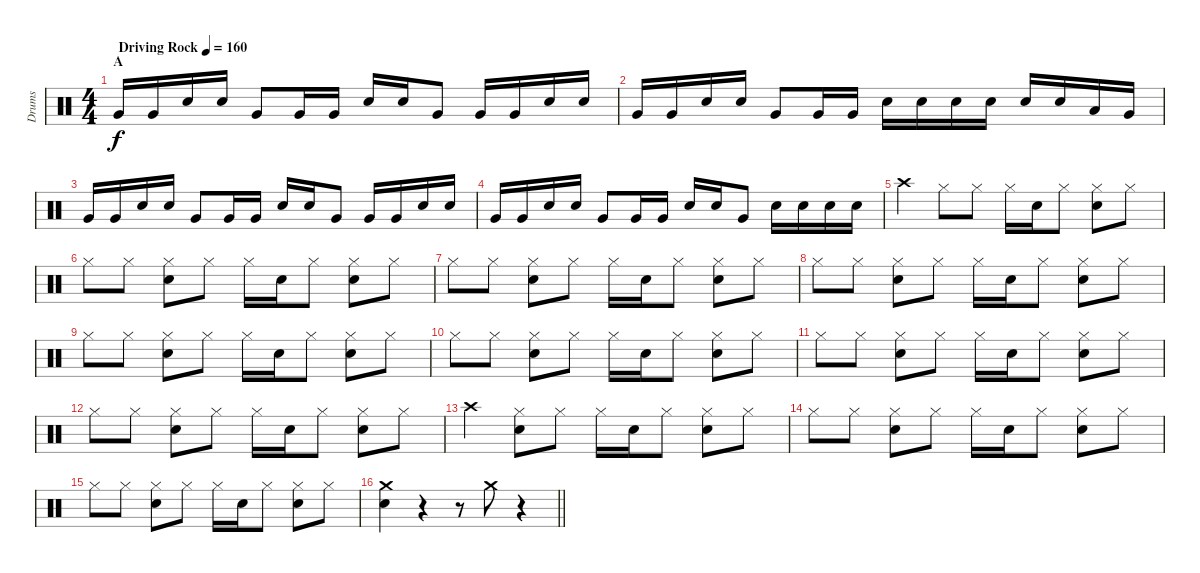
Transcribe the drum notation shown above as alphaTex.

\track ("Drums" "Drums") {instrument percussion}
\staff {score}
\articulation defaults
\ts (4 4)
\section ("" "A")
\tempo (160 "Driving Rock")
\clef neutral
\ks c "Very Low Tom (hit)".16{dy f} "Very Low Tom (hit)".16 "Snare (hit) 2".16 "Snare (hit) 2".16 "Very Low Tom (hit)".8 "Very Low Tom (hit)".16 "Very Low Tom (hit)".16 "Snare (hit) 2".16 "Snare (hit) 2".16 "Very Low Tom (hit)".8 "Very Low Tom (hit)".16 "Very Low Tom (hit)".16 "Snare (hit) 2".16 "Snare (hit) 2".16
|
"Very Low Tom (hit)".16 "Very Low Tom (hit)".16 "Snare (hit) 2".16 "Snare (hit) 2".16 "Very Low Tom (hit)".8 "Very Low Tom (hit)".16 "Very Low Tom (hit)".16 "Snare (hit) 2".16 "Snare (hit) 2".16 "Snare (hit) 2".16 "Snare (hit) 2".16 "Snare (hit) 2".16 "Snare (hit) 2".16 "Low Tom (hit)".16 "Very Low Tom (hit)".16 |
"Very Low Tom (hit)".16 "Very Low Tom (hit)".16 "Snare (hit) 2".16 "Snare (hit) 2".16 "Very Low Tom (hit)".8 "Very Low Tom (hit)".16 "Very Low Tom (hit)".16 "Snare (hit) 2".16 "Snare (hit) 2".16 "Very Low Tom (hit)".8 "Very Low Tom (hit)".16 "Very Low Tom (hit)".16 "Snare (hit) 2".16 "Snare (hit) 2".16 |
"Very Low Tom (hit)".16 "Very Low Tom (hit)".16 "Snare (hit) 2".16 "Snare (hit) 2".16 "Very Low Tom (hit)".8 "Very Low Tom (hit)".16 "Very Low Tom (hit)".16 "Snare (hit) 2".16 "Snare (hit) 2".16 "Very Low Tom (hit)".8 "Snare (hit) 2".16 "Snare (hit) 2".16 "Snare (hit) 2".16 "Snare (hit) 2".16 |
"Crash high (hit)".4 "Hi-Hat (closed)".8 "Hi-Hat (closed)".8 "Hi-Hat (closed)".16 "Snare (hit) 2".16 "Hi-Hat (closed)".8 ("Hi-Hat (closed)" "Snare (hit) 2").8 "Hi-Hat (closed)".8 |
"Hi-Hat (closed)".8 "Hi-Hat (closed)".8 ("Hi-Hat (closed)" "Snare (hit) 2").8 "Hi-Hat (closed)".8 "Hi-Hat (closed)".16 "Snare (hit) 2".16 "Hi-Hat (closed)".8 ("Snare (hit) 2" "Hi-Hat (closed)").8 "Hi-Hat (closed)".8 |
"Hi-Hat (closed)".8 "Hi-Hat (closed)".8 ("Hi-Hat (closed)" "Snare (hit) 2").8 "Hi-Hat (closed)".8 "Hi-Hat (closed)".16 "Snare (hit) 2".16 "Hi-Hat (closed)".8 ("Snare (hit) 2" "Hi-Hat (closed)").8 "Hi-Hat (closed)".8 |
"Hi-Hat (closed)".8 "Hi-Hat (closed)".8 ("Hi-Hat (closed)" "Snare (hit) 2").8 "Hi-Hat (closed)".8 "Hi-Hat (closed)".16 "Snare (hit) 2".16 "Hi-Hat (closed)".8 ("Snare (hit) 2" "Hi-Hat (closed)").8 "Hi-Hat (closed)".8 |
"Hi-Hat (closed)".8 "Hi-Hat (closed)".8 ("Hi-Hat (closed)" "Snare (hit) 2").8 "Hi-Hat (closed)".8 "Hi-Hat (closed)".16 "Snare (hit) 2".16 "Hi-Hat (closed)".8 ("Snare (hit) 2" "Hi-Hat (closed)").8 "Hi-Hat (closed)".8 |
"Hi-Hat (closed)".8 "Hi-Hat (closed)".8 ("Hi-Hat (closed)" "Snare (hit) 2").8 "Hi-Hat (closed)".8 "Hi-Hat (closed)".16 "Snare (hit) 2".16 "Hi-Hat (closed)".8 ("Snare (hit) 2" "Hi-Hat (closed)").8 "Hi-Hat (closed)".8 |
"Hi-Hat (closed)".8 "Hi-Hat (closed)".8 ("Hi-Hat (closed)" "Snare (hit) 2").8 "Hi-Hat (closed)".8 "Hi-Hat (closed)".16 "Snare (hit) 2".16 "Hi-Hat (closed)".8 ("Snare (hit) 2" "Hi-Hat (closed)").8 "Hi-Hat (closed)".8 |
"Hi-Hat (closed)".8 "Hi-Hat (closed)".8 ("Hi-Hat (closed)" "Snare (hit) 2").8 "Hi-Hat (closed)".8 "Hi-Hat (closed)".16 "Snare (hit) 2".16 "Hi-Hat (closed)".8 ("Snare (hit) 2" "Hi-Hat (closed)").8 "Hi-Hat (closed)".8 |
"Crash high (hit)".4 ("Hi-Hat (closed)" "Snare (hit) 2").8 "Hi-Hat (closed)".8 "Hi-Hat (closed)".16 "Snare (hit) 2".16 "Hi-Hat (closed)".8 ("Hi-Hat (closed)" "Snare (hit) 2").8 "Hi-Hat (closed)".8 |
"Hi-Hat (closed)".8 "Hi-Hat (closed)".8 ("Hi-Hat (closed)" "Snare (hit) 2").8 "Hi-Hat (closed)".8 "Hi-Hat (closed)".16 "Snare (hit) 2".16 "Hi-Hat (closed)".8 ("Snare (hit) 2" "Hi-Hat (closed)").8 "Hi-Hat (closed)".8 |
"Hi-Hat (closed)".8 "Hi-Hat (closed)".8 ("Hi-Hat (closed)" "Snare (hit) 2").8 "Hi-Hat (closed)".8 "Hi-Hat (closed)".16 "Snare (hit) 2".16 "Hi-Hat (closed)".8 ("Snare (hit) 2" "Hi-Hat (closed)").8 "Hi-Hat (closed)".8 |
\barLineRight lightlight
("Snare (hit) 2" "Crash medium (hit)").4 r.4 r.8 "Crash medium (hit)".8 r.4
